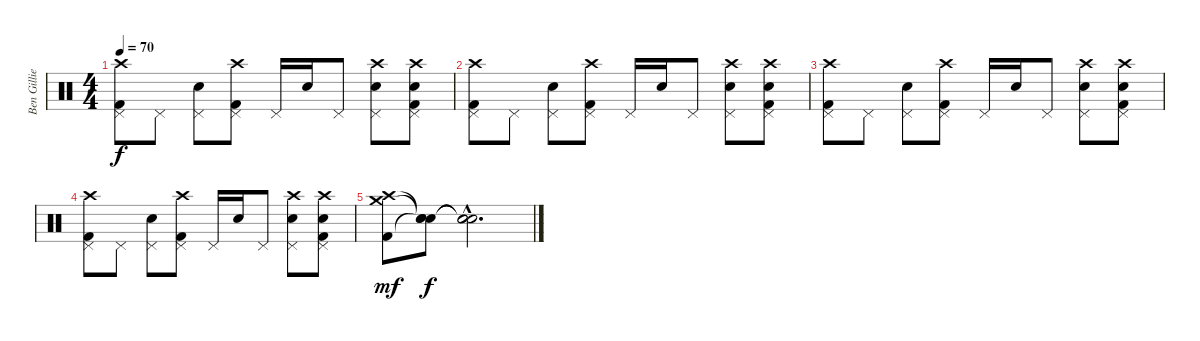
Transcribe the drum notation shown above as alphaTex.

\track ("Ben Gillies" "Ben Gillie") {instrument percussion}
\staff {score}
\articulation defaults
\ts (4 4)
\tempo 70
\clef neutral
\ks c
("Crash high (hit)" "Pedal Hi-Hat (hit)" "Kick (hit) 2").8{dy f} "Pedal Hi-Hat (hit)".8 ("Pedal Hi-Hat (hit)" "Electric Snare (hit)").8 ("Crash high (hit)" "Pedal Hi-Hat (hit)" "Kick (hit) 2").8 "Pedal Hi-Hat (hit)".16 "Electric Snare (hit)".16 "Pedal Hi-Hat (hit)".8 ("Crash high (hit)" "Pedal Hi-Hat (hit)" "Electric Snare (hit)").8 ("Crash high (hit)" "Pedal Hi-Hat (hit)" "Electric Snare (hit)" "Kick (hit) 2").8 |
("Crash high (hit)" "Pedal Hi-Hat (hit)" "Kick (hit) 2").8 "Pedal Hi-Hat (hit)".8 ("Pedal Hi-Hat (hit)" "Electric Snare (hit)").8 ("Crash high (hit)" "Pedal Hi-Hat (hit)" "Kick (hit) 2").8 "Pedal Hi-Hat (hit)".16 "Electric Snare (hit)".16 "Pedal Hi-Hat (hit)".8 ("Crash high (hit)" "Pedal Hi-Hat (hit)" "Electric Snare (hit)").8 ("Crash high (hit)" "Pedal Hi-Hat (hit)" "Electric Snare (hit)" "Kick (hit) 2").8 |
("Crash high (hit)" "Pedal Hi-Hat (hit)" "Kick (hit) 2").8 "Pedal Hi-Hat (hit)".8 ("Pedal Hi-Hat (hit)" "Electric Snare (hit)").8 ("Crash high (hit)" "Pedal Hi-Hat (hit)" "Kick (hit) 2").8 "Pedal Hi-Hat (hit)".16 "Electric Snare (hit)".16 "Pedal Hi-Hat (hit)".8 ("Crash high (hit)" "Pedal Hi-Hat (hit)" "Electric Snare (hit)").8 ("Crash high (hit)" "Pedal Hi-Hat (hit)" "Electric Snare (hit)" "Kick (hit) 2").8 |
("Crash high (hit)" "Pedal Hi-Hat (hit)" "Kick (hit) 2").8 "Pedal Hi-Hat (hit)".8 ("Pedal Hi-Hat (hit)" "Electric Snare (hit)").8 ("Crash high (hit)" "Pedal Hi-Hat (hit)" "Kick (hit) 2").8 "Pedal Hi-Hat (hit)".16 "Electric Snare (hit)".16 "Pedal Hi-Hat (hit)".8 ("Crash high (hit)" "Pedal Hi-Hat (hit)" "Electric Snare (hit)").8 ("Crash high (hit)" "Pedal Hi-Hat (hit)" "Electric Snare (hit)" "Kick (hit) 2").8 |
("Crash high (hit)" "Crash medium (hit)" "Kick (hit) 2").8{dy mf} ("Snare (hit)"{t} "Snare (hit)"{t} "Snare (hit)"{t}).8{dy f} ("Snare (hit)"{hac t} "Snare (hit)"{hac t} "Snare (hit)"{hac t}).2{d}
